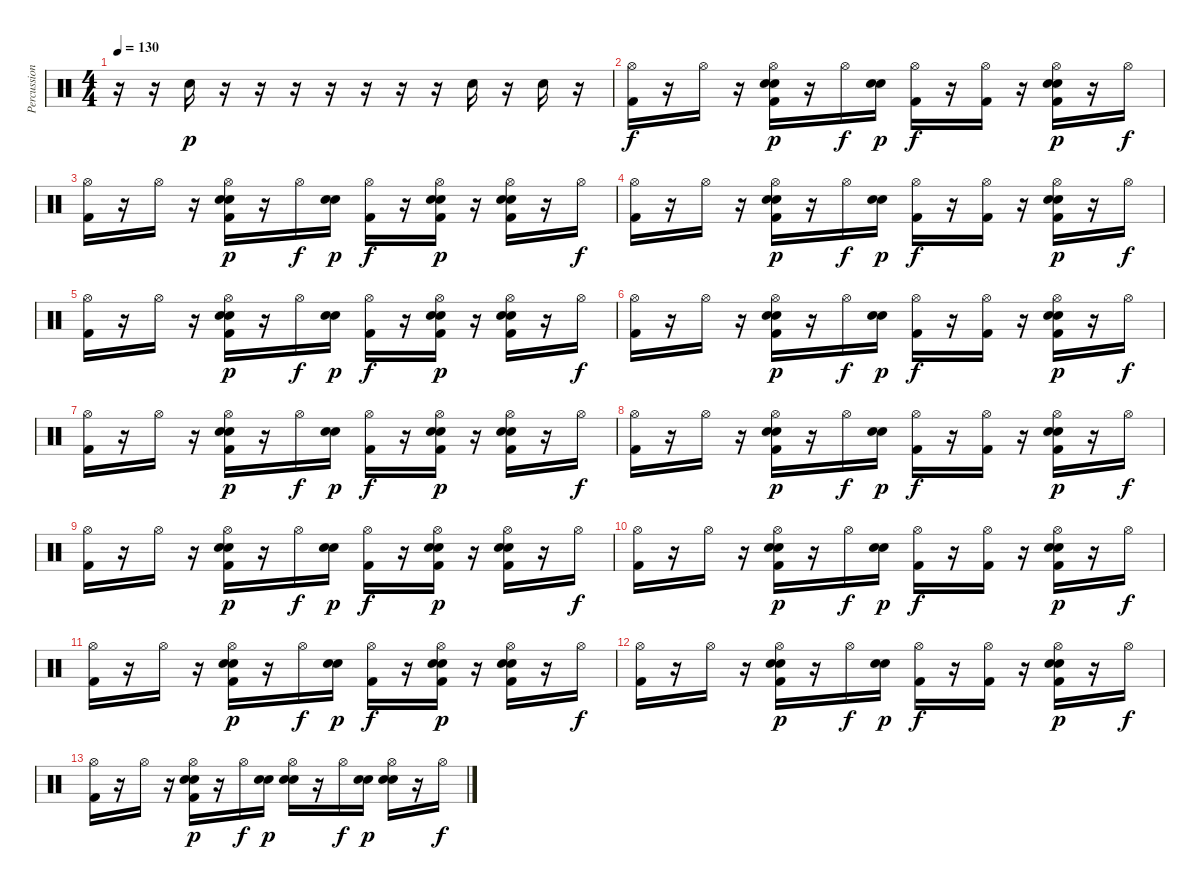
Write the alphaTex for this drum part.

\track ("Percussion" "Percussion") {instrument percussion}
\staff {score}
\articulation defaults
\ts (4 4)
\tempo 130
\clef neutral
\ks c
r.16{dy p} r.16 "Snare (hit) 2".16 r.16 r.16 r.16 r.16 r.16 r.16 r.16 "Snare (hit) 2".16 r.16 "Snare (hit) 2".16 r.16 |
("Hi-Hat (open)" "Kick (hit) 2").16{dy f} r.16 "Hi-Hat (open)".16 r.16 ("Hi-Hat (open)" "Electric Snare (hit)" "Kick (hit) 2" "Snare (hit) 2").16{dy p} r.16 "Hi-Hat (open)".16{dy f} ("Electric Snare (hit)" "Snare (hit) 2").16{dy p} ("Hi-Hat (open)" "Kick (hit) 2").16{dy f} r.16 ("Hi-Hat (open)" "Kick (hit) 2").16 r.16 ("Hi-Hat (open)" "Electric Snare (hit)" "Kick (hit) 2" "Snare (hit) 2").16{dy p} r.16 "Hi-Hat (open)".16{dy f} |
("Hi-Hat (open)" "Kick (hit) 2").16 r.16 "Hi-Hat (open)".16 r.16 ("Hi-Hat (open)" "Electric Snare (hit)" "Kick (hit) 2" "Snare (hit) 2").16{dy p} r.16 "Hi-Hat (open)".16{dy f} ("Electric Snare (hit)" "Snare (hit) 2").16{dy p} ("Hi-Hat (open)" "Kick (hit) 2").16{dy f} r.16 ("Hi-Hat (open)" "Kick (hit) 2" "Electric Snare (hit)" "Snare (hit) 2").16{dy p} r.16 ("Hi-Hat (open)" "Electric Snare (hit)" "Kick (hit) 2" "Snare (hit) 2").16 r.16 "Hi-Hat (open)".16{dy f} |
("Hi-Hat (open)" "Kick (hit) 2").16 r.16 "Hi-Hat (open)".16 r.16 ("Hi-Hat (open)" "Electric Snare (hit)" "Kick (hit) 2" "Snare (hit) 2").16{dy p} r.16 "Hi-Hat (open)".16{dy f} ("Electric Snare (hit)" "Snare (hit) 2").16{dy p} ("Hi-Hat (open)" "Kick (hit) 2").16{dy f} r.16 ("Hi-Hat (open)" "Kick (hit) 2").16 r.16 ("Hi-Hat (open)" "Electric Snare (hit)" "Kick (hit) 2" "Snare (hit) 2").16{dy p} r.16 "Hi-Hat (open)".16{dy f} |
("Hi-Hat (open)" "Kick (hit) 2").16 r.16 "Hi-Hat (open)".16 r.16 ("Hi-Hat (open)" "Electric Snare (hit)" "Kick (hit) 2" "Snare (hit) 2").16{dy p} r.16 "Hi-Hat (open)".16{dy f} ("Electric Snare (hit)" "Snare (hit) 2").16{dy p} ("Hi-Hat (open)" "Kick (hit) 2").16{dy f} r.16 ("Hi-Hat (open)" "Kick (hit) 2" "Electric Snare (hit)" "Snare (hit) 2").16{dy p} r.16 ("Hi-Hat (open)" "Electric Snare (hit)" "Kick (hit) 2" "Snare (hit) 2").16 r.16 "Hi-Hat (open)".16{dy f} |
("Hi-Hat (open)" "Kick (hit) 2").16 r.16 "Hi-Hat (open)".16 r.16 ("Hi-Hat (open)" "Electric Snare (hit)" "Kick (hit) 2" "Snare (hit) 2").16{dy p} r.16 "Hi-Hat (open)".16{dy f} ("Electric Snare (hit)" "Snare (hit) 2").16{dy p} ("Hi-Hat (open)" "Kick (hit) 2").16{dy f} r.16 ("Hi-Hat (open)" "Kick (hit) 2").16 r.16 ("Hi-Hat (open)" "Electric Snare (hit)" "Kick (hit) 2" "Snare (hit) 2").16{dy p} r.16 "Hi-Hat (open)".16{dy f} |
("Hi-Hat (open)" "Kick (hit) 2").16 r.16 "Hi-Hat (open)".16 r.16 ("Hi-Hat (open)" "Electric Snare (hit)" "Kick (hit) 2" "Snare (hit) 2").16{dy p} r.16 "Hi-Hat (open)".16{dy f} ("Electric Snare (hit)" "Snare (hit) 2").16{dy p} ("Hi-Hat (open)" "Kick (hit) 2").16{dy f} r.16 ("Hi-Hat (open)" "Kick (hit) 2" "Electric Snare (hit)" "Snare (hit) 2").16{dy p} r.16 ("Hi-Hat (open)" "Electric Snare (hit)" "Kick (hit) 2" "Snare (hit) 2").16 r.16 "Hi-Hat (open)".16{dy f} |
("Hi-Hat (open)" "Kick (hit) 2").16 r.16 "Hi-Hat (open)".16 r.16 ("Hi-Hat (open)" "Electric Snare (hit)" "Kick (hit) 2" "Snare (hit) 2").16{dy p} r.16 "Hi-Hat (open)".16{dy f} ("Electric Snare (hit)" "Snare (hit) 2").16{dy p} ("Hi-Hat (open)" "Kick (hit) 2").16{dy f} r.16 ("Hi-Hat (open)" "Kick (hit) 2").16 r.16 ("Hi-Hat (open)" "Electric Snare (hit)" "Kick (hit) 2" "Snare (hit) 2").16{dy p} r.16 "Hi-Hat (open)".16{dy f} |
("Hi-Hat (open)" "Kick (hit) 2").16 r.16 "Hi-Hat (open)".16 r.16 ("Hi-Hat (open)" "Electric Snare (hit)" "Kick (hit) 2" "Snare (hit) 2").16{dy p} r.16 "Hi-Hat (open)".16{dy f} ("Electric Snare (hit)" "Snare (hit) 2").16{dy p} ("Hi-Hat (open)" "Kick (hit) 2").16{dy f} r.16 ("Hi-Hat (open)" "Kick (hit) 2" "Electric Snare (hit)" "Snare (hit) 2").16{dy p} r.16 ("Hi-Hat (open)" "Electric Snare (hit)" "Kick (hit) 2" "Snare (hit) 2").16 r.16 "Hi-Hat (open)".16{dy f} |
("Hi-Hat (open)" "Kick (hit) 2").16 r.16 "Hi-Hat (open)".16 r.16 ("Hi-Hat (open)" "Electric Snare (hit)" "Kick (hit) 2" "Snare (hit) 2").16{dy p} r.16 "Hi-Hat (open)".16{dy f} ("Electric Snare (hit)" "Snare (hit) 2").16{dy p} ("Hi-Hat (open)" "Kick (hit) 2").16{dy f} r.16 ("Hi-Hat (open)" "Kick (hit) 2").16 r.16 ("Hi-Hat (open)" "Electric Snare (hit)" "Kick (hit) 2" "Snare (hit) 2").16{dy p} r.16 "Hi-Hat (open)".16{dy f} |
("Hi-Hat (open)" "Kick (hit) 2").16 r.16 "Hi-Hat (open)".16 r.16 ("Hi-Hat (open)" "Electric Snare (hit)" "Kick (hit) 2" "Snare (hit) 2").16{dy p} r.16 "Hi-Hat (open)".16{dy f} ("Electric Snare (hit)" "Snare (hit) 2").16{dy p} ("Hi-Hat (open)" "Kick (hit) 2").16{dy f} r.16 ("Hi-Hat (open)" "Kick (hit) 2" "Electric Snare (hit)" "Snare (hit) 2").16{dy p} r.16 ("Hi-Hat (open)" "Electric Snare (hit)" "Kick (hit) 2" "Snare (hit) 2").16 r.16 "Hi-Hat (open)".16{dy f} |
("Hi-Hat (open)" "Kick (hit) 2").16 r.16 "Hi-Hat (open)".16 r.16 ("Hi-Hat (open)" "Electric Snare (hit)" "Kick (hit) 2" "Snare (hit) 2").16{dy p} r.16 "Hi-Hat (open)".16{dy f} ("Electric Snare (hit)" "Snare (hit) 2").16{dy p} ("Hi-Hat (open)" "Kick (hit) 2").16{dy f} r.16 ("Hi-Hat (open)" "Kick (hit) 2").16 r.16 ("Hi-Hat (open)" "Electric Snare (hit)" "Kick (hit) 2" "Snare (hit) 2").16{dy p} r.16 "Hi-Hat (open)".16{dy f} |
("Hi-Hat (open)" "Kick (hit) 2").16 r.16 "Hi-Hat (open)".16 r.16 ("Hi-Hat (open)" "Electric Snare (hit)" "Kick (hit) 2" "Snare (hit) 2").16{dy p} r.16 "Hi-Hat (open)".16{dy f} ("Electric Snare (hit)" "Snare (hit) 2").16{dy p} ("Hi-Hat (open)" "Electric Snare (hit)" "Snare (hit) 2").16 r.16 "Hi-Hat (open)".16{dy f} ("Electric Snare (hit)" "Snare (hit) 2").16{dy p} ("Hi-Hat (open)" "Electric Snare (hit)" "Snare (hit) 2").16 r.16 "Hi-Hat (open)".16{dy f}
